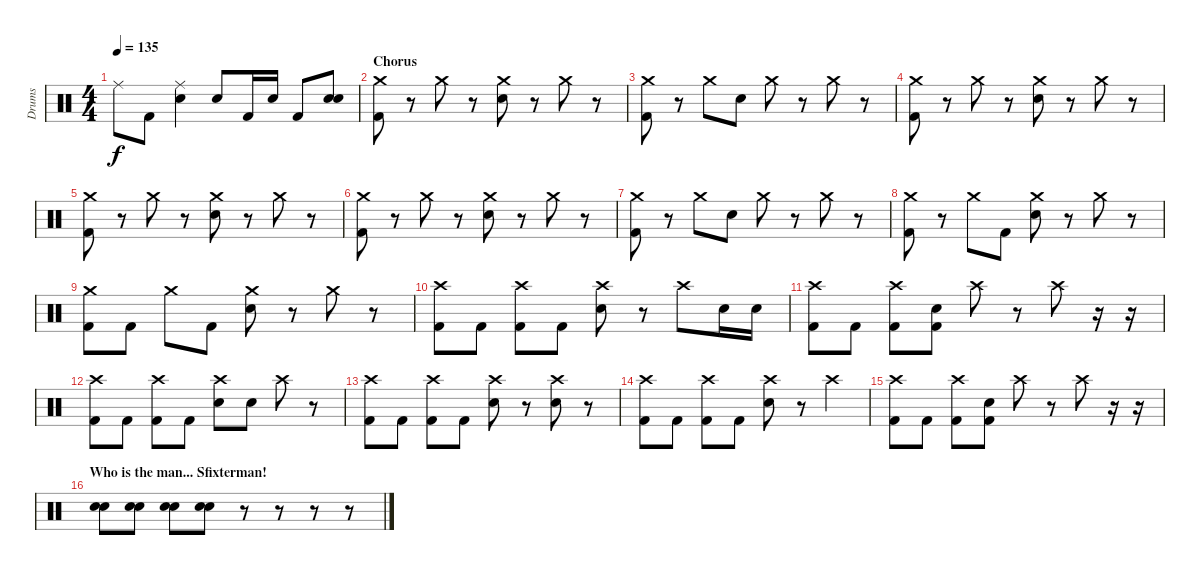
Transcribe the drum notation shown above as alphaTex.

\track ("Drums" "Drums") {instrument percussion}
\staff {score}
\articulation defaults
\ts (4 4)
\tempo 135
\clef neutral
\ks c "Ride (middle)".8{dy f} "Kick (hit) 2".8
("Ride (middle)" "Snare (hit) 2").4 "Electric Snare (hit)".8 "Kick (hit) 2".16 "Electric Snare (hit)".16 "Kick (hit) 2".8 ("Electric Snare (hit)" "Electric Snare (hit)").8{bd 240} |
\section ("" "Chorus ")
("Crash medium (hit)" "Kick (hit) 2").8 r.8 "Crash medium (hit)".8 r.8 ("Crash medium (hit)" "Electric Snare (hit)").8 r.8 "Crash medium (hit)".8 r.8 |
("Crash medium (hit)" "Kick (hit) 2").8 r.8 "Crash medium (hit)".8 "Electric Snare (hit)".8 "Crash medium (hit)".8 r.8 "Crash medium (hit)".8 r.8 |
("Crash medium (hit)" "Kick (hit) 2").8 r.8 "Crash medium (hit)".8 r.8 ("Crash medium (hit)" "Electric Snare (hit)").8 r.8 "Crash medium (hit)".8 r.8 |
("Crash medium (hit)" "Kick (hit) 2").8 r.8 "Crash medium (hit)".8 r.8 ("Crash medium (hit)" "Electric Snare (hit)").8 r.8 "Crash medium (hit)".8 r.8 |
("Crash medium (hit)" "Kick (hit) 2").8 r.8 "Crash medium (hit)".8 r.8 ("Crash medium (hit)" "Electric Snare (hit)").8 r.8 "Crash medium (hit)".8 r.8 |
("Crash medium (hit)" "Kick (hit) 2").8 r.8 "Crash medium (hit)".8 "Electric Snare (hit)".8 "Crash medium (hit)".8 r.8 "Crash medium (hit)".8 r.8 |
("Crash medium (hit)" "Kick (hit) 2").8 r.8 "Crash medium (hit)".8 "Kick (hit) 2".8 ("Crash medium (hit)" "Electric Snare (hit)").8 r.8 "Crash medium (hit)".8 r.8 |
("Crash medium (hit)" "Kick (hit) 2").8 "Kick (hit) 2".8 "Crash medium (hit)".8 "Kick (hit) 2".8 ("Crash medium (hit)" "Electric Snare (hit)").8 r.8 "Crash medium (hit)".8 r.8 |
("Crash high (hit)" "Kick (hit) 2").8 "Kick (hit) 2".8 ("Crash high (hit)" "Kick (hit) 2").8 "Kick (hit) 2".8 ("Crash high (hit)" "Electric Snare (hit)").8 r.8 "Crash high (hit)".8 "Electric Snare (hit)".16 "Electric Snare (hit)".16 |
("Crash high (hit)" "Kick (hit) 2").8 "Kick (hit) 2".8 ("Crash high (hit)" "Kick (hit) 2").8 ("Electric Snare (hit)" "Kick (hit) 2").8 "Crash high (hit)".8 r.8 "Crash high (hit)".8 r.16 r.16 |
("Crash high (hit)" "Kick (hit) 2").8 "Kick (hit) 2".8 ("Crash high (hit)" "Kick (hit) 2").8 "Kick (hit) 2".8 ("Crash high (hit)" "Electric Snare (hit)").8 "Electric Snare (hit)".8 "Crash high (hit)".8 r.8 |
("Crash high (hit)" "Kick (hit) 2").8 "Kick (hit) 2".8 ("Crash high (hit)" "Kick (hit) 2").8 "Kick (hit) 2".8 ("Crash high (hit)" "Electric Snare (hit)").8 r.8 ("Crash high (hit)" "Electric Snare (hit)").8 r.8 |
("Crash high (hit)" "Kick (hit) 2").8 "Kick (hit) 2".8 ("Crash high (hit)" "Kick (hit) 2").8 "Kick (hit) 2".8 ("Crash high (hit)" "Electric Snare (hit)").8 r.8 "Crash high (hit)".4 |
("Crash high (hit)" "Kick (hit) 2").8 "Kick (hit) 2".8 ("Crash high (hit)" "Kick (hit) 2").8 ("Electric Snare (hit)" "Kick (hit) 2").8 "Crash high (hit)".8 r.8 "Crash high (hit)".8 r.16 r.16 |
\section ("" "Who is the man... Sfixterman!")
("Snare (hit) 2" "Electric Snare (hit)").8 ("Snare (hit) 2" "Electric Snare (hit)").8 ("Snare (hit) 2" "Electric Snare (hit)").8 ("Snare (hit) 2" "Electric Snare (hit)").8 r.8 r.8 r.8 r.8
